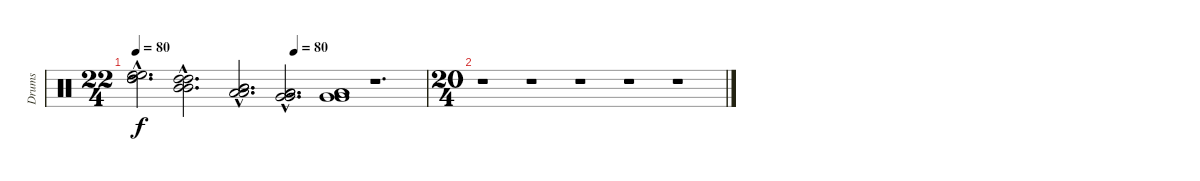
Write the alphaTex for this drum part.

\track ("Drums" "Drums") {instrument percussion}
\staff {score}
\articulation defaults
\ts (22 4)
\tempo 80
\tempo (80 0.5454545454545454)
\clef neutral
\ks c
("High Floor Tom (hit)"{hac} "High Tom (hit)"{hac} "High Floor Tom (hit)"{hac} "High Tom (hit)"{hac}).2{d dy f} ("High Tom (hit)"{hac} "Mid Tom (hit)"{hac} "High Tom (hit)"{hac} "Mid Tom (hit)"{hac}).2{d} ("Mid Tom (hit)"{hac} "Low Tom (hit)"{hac} "Mid Tom (hit)"{hac} "Low Tom (hit)"{hac}).2{d} ("Low Tom (hit)"{hac} "Very Low Tom (hit)"{hac} "Low Tom (hit)"{hac} "Very Low Tom (hit)"{hac}).2{d} ("Very Low Tom (hit)" "Low Floor Tom (hit)" "Very Low Tom (hit)" "Low Floor Tom (hit)").1 r.1{d} |
\ts (20 4)
r.1 r.1 r.1 r.1 r.1
